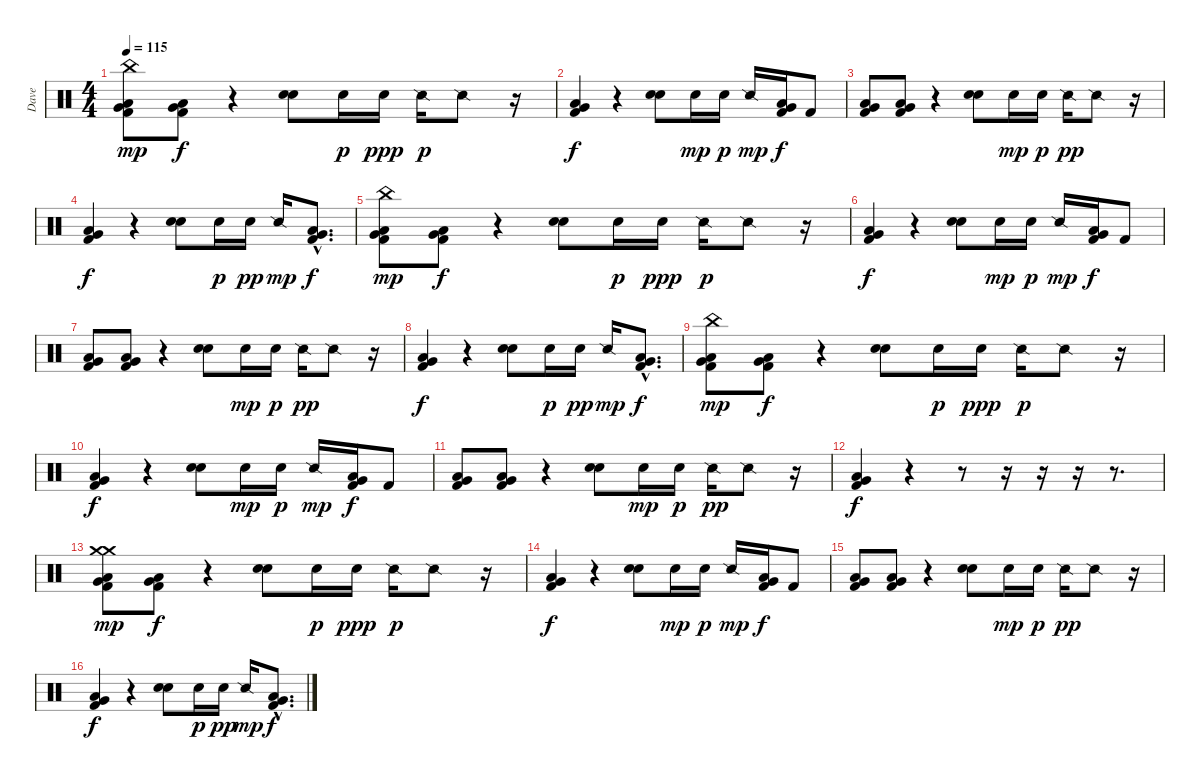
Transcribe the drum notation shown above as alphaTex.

\track ("Dave" "Dave") {instrument percussion}
\staff {score}
\articulation defaults
\ts (4 4)
\tempo 115
\clef neutral
\ks c
("China (hit)" "Very Low Tom (hit)" "Low Floor Tom (hit)" "Kick (hit) 2").8{dy mp} ("Very Low Tom (hit)" "Low Floor Tom (hit)" "Kick (hit) 2").8{dy f} r.4 ("Hand Clap (hit)" "Electric Snare (hit)").8 "Hand Clap (hit)".16{dy p} "Hand Clap (hit)".16{dy ppp} "Snare (side stick) 2".16{dy p} "Snare (side stick) 2".8 r.16 |
("Very Low Tom (hit)" "Low Floor Tom (hit)" "Kick (hit) 2").4{dy f} r.4 ("Hand Clap (hit)" "Electric Snare (hit)").8 "Hand Clap (hit)".16{dy mp} "Hand Clap (hit)".16{dy p} "Snare (side stick) 2".16{dy mp} ("Very Low Tom (hit)" "Low Floor Tom (hit)" "Kick (hit) 2").16{dy f} "Kick (hit) 2".8 |
("Very Low Tom (hit)" "Low Floor Tom (hit)" "Kick (hit) 2").8 ("Very Low Tom (hit)" "Low Floor Tom (hit)" "Kick (hit) 2").8 r.4 ("Hand Clap (hit)" "Electric Snare (hit)").8 "Hand Clap (hit)".16{dy mp} "Hand Clap (hit)".16{dy p} "Snare (side stick) 2".16{dy pp} "Snare (side stick) 2".8 r.16 |
("Very Low Tom (hit)" "Low Floor Tom (hit)" "Kick (hit) 2").4{dy f} r.4 ("Hand Clap (hit)" "Electric Snare (hit)").8 "Hand Clap (hit)".16{dy p} "Hand Clap (hit)".16{dy pp} "Snare (side stick) 2".16{dy mp} ("Very Low Tom (hit)"{hac} "Low Floor Tom (hit)"{hac} "Kick (hit) 2"{hac}).8{d dy f} |
("China (hit)" "Very Low Tom (hit)" "Low Floor Tom (hit)" "Kick (hit) 2").8{dy mp} ("Very Low Tom (hit)" "Low Floor Tom (hit)" "Kick (hit) 2").8{dy f} r.4 ("Hand Clap (hit)" "Electric Snare (hit)").8 "Hand Clap (hit)".16{dy p} "Hand Clap (hit)".16{dy ppp} "Snare (side stick) 2".16{dy p} "Snare (side stick) 2".8 r.16 |
("Very Low Tom (hit)" "Low Floor Tom (hit)" "Kick (hit) 2").4{dy f} r.4 ("Hand Clap (hit)" "Electric Snare (hit)").8 "Hand Clap (hit)".16{dy mp} "Hand Clap (hit)".16{dy p} "Snare (side stick) 2".16{dy mp} ("Very Low Tom (hit)" "Low Floor Tom (hit)" "Kick (hit) 2").16{dy f} "Kick (hit) 2".8 |
("Very Low Tom (hit)" "Low Floor Tom (hit)" "Kick (hit) 2").8 ("Very Low Tom (hit)" "Low Floor Tom (hit)" "Kick (hit) 2").8 r.4 ("Hand Clap (hit)" "Electric Snare (hit)").8 "Hand Clap (hit)".16{dy mp} "Hand Clap (hit)".16{dy p} "Snare (side stick) 2".16{dy pp} "Snare (side stick) 2".8 r.16 |
("Very Low Tom (hit)" "Low Floor Tom (hit)" "Kick (hit) 2").4{dy f} r.4 ("Hand Clap (hit)" "Electric Snare (hit)").8 "Hand Clap (hit)".16{dy p} "Hand Clap (hit)".16{dy pp} "Snare (side stick) 2".16{dy mp} ("Very Low Tom (hit)"{hac} "Low Floor Tom (hit)"{hac} "Kick (hit) 2"{hac}).8{d dy f} |
("China (hit)" "Very Low Tom (hit)" "Low Floor Tom (hit)" "Kick (hit) 2").8{dy mp} ("Very Low Tom (hit)" "Low Floor Tom (hit)" "Kick (hit) 2").8{dy f} r.4 ("Hand Clap (hit)" "Electric Snare (hit)").8 "Hand Clap (hit)".16{dy p} "Hand Clap (hit)".16{dy ppp} "Snare (side stick) 2".16{dy p} "Snare (side stick) 2".8 r.16 |
("Very Low Tom (hit)" "Low Floor Tom (hit)" "Kick (hit) 2").4{dy f} r.4 ("Hand Clap (hit)" "Electric Snare (hit)").8 "Hand Clap (hit)".16{dy mp} "Hand Clap (hit)".16{dy p} "Snare (side stick) 2".16{dy mp} ("Very Low Tom (hit)" "Low Floor Tom (hit)" "Kick (hit) 2").16{dy f} "Kick (hit) 2".8 |
("Very Low Tom (hit)" "Low Floor Tom (hit)" "Kick (hit) 2").8 ("Very Low Tom (hit)" "Low Floor Tom (hit)" "Kick (hit) 2").8 r.4 ("Hand Clap (hit)" "Electric Snare (hit)").8 "Hand Clap (hit)".16{dy mp} "Hand Clap (hit)".16{dy p} "Snare (side stick) 2".16{dy pp} "Snare (side stick) 2".8 r.16 |
("Very Low Tom (hit)" "Low Floor Tom (hit)" "Kick (hit) 2").4{dy f} r.4 r.8 r.16 r.16 r.16 r.8{d} |
("Crash medium (hit)" "Crash medium (hit)" "Very Low Tom (hit)" "Low Floor Tom (hit)" "Kick (hit) 2").8{dy mp} ("Very Low Tom (hit)" "Low Floor Tom (hit)" "Kick (hit) 2").8{dy f} r.4 ("Hand Clap (hit)" "Electric Snare (hit)").8 "Hand Clap (hit)".16{dy p} "Hand Clap (hit)".16{dy ppp} "Snare (side stick) 2".16{dy p} "Snare (side stick) 2".8 r.16 |
("Very Low Tom (hit)" "Low Floor Tom (hit)" "Kick (hit) 2").4{dy f} r.4 ("Hand Clap (hit)" "Electric Snare (hit)").8 "Hand Clap (hit)".16{dy mp} "Hand Clap (hit)".16{dy p} "Snare (side stick) 2".16{dy mp} ("Very Low Tom (hit)" "Low Floor Tom (hit)" "Kick (hit) 2").16{dy f} "Kick (hit) 2".8 |
("Very Low Tom (hit)" "Low Floor Tom (hit)" "Kick (hit) 2").8 ("Very Low Tom (hit)" "Low Floor Tom (hit)" "Kick (hit) 2").8 r.4 ("Hand Clap (hit)" "Electric Snare (hit)").8 "Hand Clap (hit)".16{dy mp} "Hand Clap (hit)".16{dy p} "Snare (side stick) 2".16{dy pp} "Snare (side stick) 2".8 r.16 |
("Very Low Tom (hit)" "Low Floor Tom (hit)" "Kick (hit) 2").4{dy f} r.4 ("Hand Clap (hit)" "Electric Snare (hit)").8 "Hand Clap (hit)".16{dy p} "Hand Clap (hit)".16{dy pp} "Snare (side stick) 2".16{dy mp} ("Very Low Tom (hit)"{hac} "Low Floor Tom (hit)"{hac} "Kick (hit) 2"{hac}).8{d dy f}
